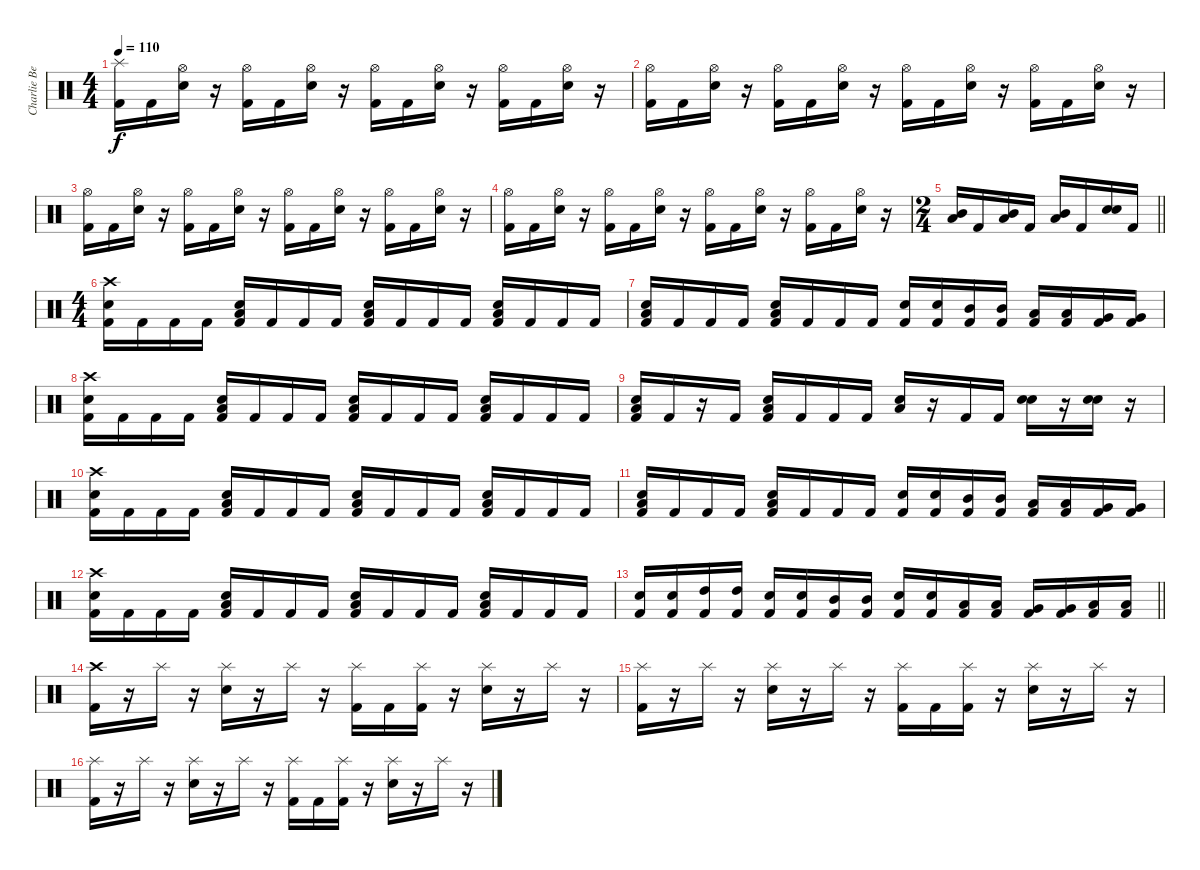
\track ("Charlie Benante" "Charlie Be") {instrument percussion}
\staff {score}
\articulation defaults
\ts (4 4)
\tempo 110
\clef neutral
\ks c
("Splash (hit)" "Kick (hit) 2").16{dy f} "Kick (hit) 2".16 ("Hi-Hat (open)" "Electric Snare (hit)").16 r.16 ("Hi-Hat (open)" "Kick (hit) 2").16 "Kick (hit) 2".16 ("Hi-Hat (open)" "Electric Snare (hit)").16 r.16 ("Hi-Hat (open)" "Kick (hit) 2").16 "Kick (hit) 2".16 ("Hi-Hat (open)" "Electric Snare (hit)").16 r.16 ("Hi-Hat (open)" "Kick (hit) 2").16 "Kick (hit) 2".16 ("Hi-Hat (open)" "Electric Snare (hit)").16 r.16 |
("Hi-Hat (open)" "Kick (hit) 2").16 "Kick (hit) 2".16 ("Hi-Hat (open)" "Electric Snare (hit)").16 r.16 ("Hi-Hat (open)" "Kick (hit) 2").16 "Kick (hit) 2".16 ("Hi-Hat (open)" "Electric Snare (hit)").16 r.16 ("Hi-Hat (open)" "Kick (hit) 2").16 "Kick (hit) 2".16 ("Hi-Hat (open)" "Electric Snare (hit)").16 r.16 ("Hi-Hat (open)" "Kick (hit) 2").16 "Kick (hit) 2".16 ("Hi-Hat (open)" "Electric Snare (hit)").16 r.16 |
("Hi-Hat (open)" "Kick (hit) 2").16 "Kick (hit) 2".16 ("Hi-Hat (open)" "Electric Snare (hit)").16 r.16 ("Hi-Hat (open)" "Kick (hit) 2").16 "Kick (hit) 2".16 ("Hi-Hat (open)" "Electric Snare (hit)").16 r.16 ("Hi-Hat (open)" "Kick (hit) 2").16 "Kick (hit) 2".16 ("Hi-Hat (open)" "Electric Snare (hit)").16 r.16 ("Hi-Hat (open)" "Kick (hit) 2").16 "Kick (hit) 2".16 ("Hi-Hat (open)" "Electric Snare (hit)").16 r.16 |
("Hi-Hat (open)" "Kick (hit) 2").16 "Kick (hit) 2".16 ("Hi-Hat (open)" "Electric Snare (hit)").16 r.16 ("Hi-Hat (open)" "Kick (hit) 2").16 "Kick (hit) 2".16 ("Hi-Hat (open)" "Electric Snare (hit)").16 r.16 ("Hi-Hat (open)" "Kick (hit) 2").16 "Kick (hit) 2".16 ("Hi-Hat (open)" "Electric Snare (hit)").16 r.16 ("Hi-Hat (open)" "Kick (hit) 2").16 "Kick (hit) 2".16 ("Hi-Hat (open)" "Electric Snare (hit)").16 r.16 |
\ts (2 4)
\barLineRight lightlight
("Low Tom (hit)" "Mid Tom (hit)").16 "Kick (hit) 2".16 ("Low Tom (hit)" "Mid Tom (hit)").16 "Kick (hit) 2".16 ("Low Tom (hit)" "Mid Tom (hit)").16 "Kick (hit) 2".16 ("Snare (hit) 2" "Electric Snare (hit)").16 "Kick (hit) 2".16 |
\ts (4 4)
("Crash high (hit)" "Electric Snare (hit)" "Kick (hit) 2").16 "Kick (hit) 2".16 "Kick (hit) 2".16 "Kick (hit) 2".16 ("Low Floor Tom (hit)" "Electric Snare (hit)" "Kick (hit) 2").16 "Kick (hit) 2".16 "Kick (hit) 2".16 "Kick (hit) 2".16 ("Low Floor Tom (hit)" "Electric Snare (hit)" "Kick (hit) 2").16 "Kick (hit) 2".16 "Kick (hit) 2".16 "Kick (hit) 2".16 ("Low Floor Tom (hit)" "Electric Snare (hit)" "Kick (hit) 2").16 "Kick (hit) 2".16 "Kick (hit) 2".16 "Kick (hit) 2".16 |
("Low Floor Tom (hit)" "Electric Snare (hit)" "Kick (hit) 2").16 "Kick (hit) 2".16 "Kick (hit) 2".16 "Kick (hit) 2".16 ("Low Floor Tom (hit)" "Electric Snare (hit)" "Kick (hit) 2").16 "Kick (hit) 2".16 "Kick (hit) 2".16 "Kick (hit) 2".16 ("Electric Snare (hit)" "Kick (hit) 2").16 ("Electric Snare (hit)" "Kick (hit) 2").16 ("Mid Tom (hit)" "Kick (hit) 2").16 ("Mid Tom (hit)" "Kick (hit) 2").16 ("Low Tom (hit)" "Kick (hit) 2").16 ("Low Tom (hit)" "Kick (hit) 2").16 ("Very Low Tom (hit)" "Kick (hit) 2").16 ("Very Low Tom (hit)" "Kick (hit) 2").16 |
("Crash high (hit)" "Electric Snare (hit)" "Kick (hit) 2").16 "Kick (hit) 2".16 "Kick (hit) 2".16 "Kick (hit) 2".16 ("Low Floor Tom (hit)" "Electric Snare (hit)" "Kick (hit) 2").16 "Kick (hit) 2".16 "Kick (hit) 2".16 "Kick (hit) 2".16 ("Low Floor Tom (hit)" "Electric Snare (hit)" "Kick (hit) 2").16 "Kick (hit) 2".16 "Kick (hit) 2".16 "Kick (hit) 2".16 ("Low Floor Tom (hit)" "Electric Snare (hit)" "Kick (hit) 2").16 "Kick (hit) 2".16 "Kick (hit) 2".16 "Kick (hit) 2".16 |
("Low Floor Tom (hit)" "Electric Snare (hit)" "Kick (hit) 2").16 "Kick (hit) 2".16 r.16 "Kick (hit) 2".16 ("Low Floor Tom (hit)" "Electric Snare (hit)" "Kick (hit) 2").16 "Kick (hit) 2".16 "Kick (hit) 2".16 "Kick (hit) 2".16 ("Low Floor Tom (hit)" "Electric Snare (hit)").16 r.16 "Kick (hit) 2".16 "Kick (hit) 2".16 ("Snare (hit) 2" "Electric Snare (hit)").16 r.16 ("Snare (hit) 2" "Electric Snare (hit)").16 r.16 |
("Crash high (hit)" "Electric Snare (hit)" "Kick (hit) 2").16 "Kick (hit) 2".16 "Kick (hit) 2".16 "Kick (hit) 2".16 ("Low Floor Tom (hit)" "Electric Snare (hit)" "Kick (hit) 2").16 "Kick (hit) 2".16 "Kick (hit) 2".16 "Kick (hit) 2".16 ("Low Floor Tom (hit)" "Electric Snare (hit)" "Kick (hit) 2").16 "Kick (hit) 2".16 "Kick (hit) 2".16 "Kick (hit) 2".16 ("Low Floor Tom (hit)" "Electric Snare (hit)" "Kick (hit) 2").16 "Kick (hit) 2".16 "Kick (hit) 2".16 "Kick (hit) 2".16 |
("Low Floor Tom (hit)" "Electric Snare (hit)" "Kick (hit) 2").16 "Kick (hit) 2".16 "Kick (hit) 2".16 "Kick (hit) 2".16 ("Low Floor Tom (hit)" "Electric Snare (hit)" "Kick (hit) 2").16 "Kick (hit) 2".16 "Kick (hit) 2".16 "Kick (hit) 2".16 ("Electric Snare (hit)" "Kick (hit) 2").16 ("Electric Snare (hit)" "Kick (hit) 2").16 ("Mid Tom (hit)" "Kick (hit) 2").16 ("Mid Tom (hit)" "Kick (hit) 2").16 ("Low Tom (hit)" "Kick (hit) 2").16 ("Low Tom (hit)" "Kick (hit) 2").16 ("Very Low Tom (hit)" "Kick (hit) 2").16 ("Very Low Tom (hit)" "Kick (hit) 2").16 |
("Crash high (hit)" "Electric Snare (hit)" "Kick (hit) 2").16 "Kick (hit) 2".16 "Kick (hit) 2".16 "Kick (hit) 2".16 ("Low Floor Tom (hit)" "Electric Snare (hit)" "Kick (hit) 2").16 "Kick (hit) 2".16 "Kick (hit) 2".16 "Kick (hit) 2".16 ("Low Floor Tom (hit)" "Electric Snare (hit)" "Kick (hit) 2").16 "Kick (hit) 2".16 "Kick (hit) 2".16 "Kick (hit) 2".16 ("Low Floor Tom (hit)" "Electric Snare (hit)" "Kick (hit) 2").16 "Kick (hit) 2".16 "Kick (hit) 2".16 "Kick (hit) 2".16 |
\barLineRight lightlight
("Electric Snare (hit)" "Kick (hit) 2").16 ("Electric Snare (hit)" "Kick (hit) 2").16 ("High Tom (hit)" "Kick (hit) 2").16 ("High Tom (hit)" "Kick (hit) 2").16 ("Electric Snare (hit)" "Kick (hit) 2").16 ("Electric Snare (hit)" "Kick (hit) 2").16 ("Mid Tom (hit)" "Kick (hit) 2").16 ("Mid Tom (hit)" "Kick (hit) 2").16 ("Electric Snare (hit)" "Kick (hit) 2").16 ("Electric Snare (hit)" "Kick (hit) 2").16 ("Low Tom (hit)" "Kick (hit) 2").16 ("Low Tom (hit)" "Kick (hit) 2").16 ("Very Low Tom (hit)" "Kick (hit) 2").16 ("Very Low Tom (hit)" "Kick (hit) 2").16 ("Low Floor Tom (hit)" "Kick (hit) 2").16 ("Low Floor Tom (hit)" "Kick (hit) 2").16 |
("Crash high (hit)" "Kick (hit) 2").16 r.16 "Splash (hit)".16 r.16 ("Splash (hit)" "Electric Snare (hit)").16 r.16 "Splash (hit)".16 r.16 ("Splash (hit)" "Kick (hit) 2").16 "Kick (hit) 2".16 ("Splash (hit)" "Kick (hit) 2").16 r.16 ("Splash (hit)" "Electric Snare (hit)").16 r.16 "Splash (hit)".16 r.16 |
("Splash (hit)" "Kick (hit) 2").16 r.16 "Splash (hit)".16 r.16 ("Splash (hit)" "Electric Snare (hit)").16 r.16 "Splash (hit)".16 r.16 ("Splash (hit)" "Kick (hit) 2").16 "Kick (hit) 2".16 ("Splash (hit)" "Kick (hit) 2").16 r.16 ("Splash (hit)" "Electric Snare (hit)").16 r.16 "Splash (hit)".16 r.16 |
("Splash (hit)" "Kick (hit) 2").16 r.16 "Splash (hit)".16 r.16 ("Splash (hit)" "Electric Snare (hit)").16 r.16 "Splash (hit)".16 r.16 ("Splash (hit)" "Kick (hit) 2").16 "Kick (hit) 2".16 ("Splash (hit)" "Kick (hit) 2").16 r.16 ("Splash (hit)" "Electric Snare (hit)").16 r.16 "Splash (hit)".16 r.16
